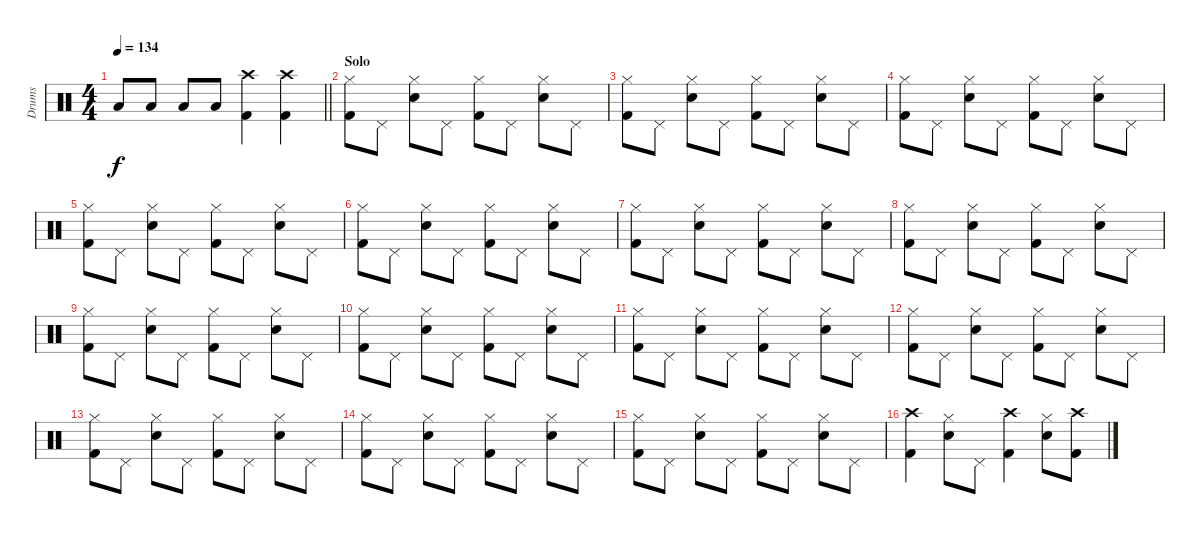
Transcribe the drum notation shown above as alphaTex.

\track ("Drums" "Drums") {instrument percussion}
\staff {score}
\articulation defaults
\ts (4 4)
\tempo 134
\clef neutral
\barLineRight lightlight
\ks c "Low Tom (hit)".8{dy f} "Low Tom (hit)".8 "Low Tom (hit)".8 "Low Tom (hit)".8
("Crash high (hit)" "Kick (hit) 2").4 ("Crash high (hit)" "Kick (hit) 2").4 |
\section ("" "Solo")
("Hi-Hat (closed)" "Kick (hit) 2").8 "Pedal Hi-Hat (hit)".8 ("Hi-Hat (closed)" "Snare (hit) 2").8 "Pedal Hi-Hat (hit)".8 ("Hi-Hat (closed)" "Kick (hit) 2").8 "Pedal Hi-Hat (hit)".8 ("Hi-Hat (closed)" "Snare (hit) 2").8 "Pedal Hi-Hat (hit)".8 |
("Hi-Hat (closed)" "Kick (hit) 2").8 "Pedal Hi-Hat (hit)".8 ("Hi-Hat (closed)" "Snare (hit) 2").8 "Pedal Hi-Hat (hit)".8 ("Hi-Hat (closed)" "Kick (hit) 2").8 "Pedal Hi-Hat (hit)".8 ("Hi-Hat (closed)" "Snare (hit) 2").8 "Pedal Hi-Hat (hit)".8 |
("Hi-Hat (closed)" "Kick (hit) 2").8 "Pedal Hi-Hat (hit)".8 ("Hi-Hat (closed)" "Snare (hit) 2").8 "Pedal Hi-Hat (hit)".8 ("Hi-Hat (closed)" "Kick (hit) 2").8 "Pedal Hi-Hat (hit)".8 ("Hi-Hat (closed)" "Snare (hit) 2").8 "Pedal Hi-Hat (hit)".8 |
("Hi-Hat (closed)" "Kick (hit) 2").8 "Pedal Hi-Hat (hit)".8 ("Hi-Hat (closed)" "Snare (hit) 2").8 "Pedal Hi-Hat (hit)".8 ("Hi-Hat (closed)" "Kick (hit) 2").8 "Pedal Hi-Hat (hit)".8 ("Hi-Hat (closed)" "Snare (hit) 2").8 "Pedal Hi-Hat (hit)".8 |
("Hi-Hat (closed)" "Kick (hit) 2").8 "Pedal Hi-Hat (hit)".8 ("Hi-Hat (closed)" "Snare (hit) 2").8 "Pedal Hi-Hat (hit)".8 ("Hi-Hat (closed)" "Kick (hit) 2").8 "Pedal Hi-Hat (hit)".8 ("Hi-Hat (closed)" "Snare (hit) 2").8 "Pedal Hi-Hat (hit)".8 |
("Hi-Hat (closed)" "Kick (hit) 2").8 "Pedal Hi-Hat (hit)".8 ("Hi-Hat (closed)" "Snare (hit) 2").8 "Pedal Hi-Hat (hit)".8 ("Hi-Hat (closed)" "Kick (hit) 2").8 "Pedal Hi-Hat (hit)".8 ("Hi-Hat (closed)" "Snare (hit) 2").8 "Pedal Hi-Hat (hit)".8 |
("Hi-Hat (closed)" "Kick (hit) 2").8 "Pedal Hi-Hat (hit)".8 ("Hi-Hat (closed)" "Snare (hit) 2").8 "Pedal Hi-Hat (hit)".8 ("Hi-Hat (closed)" "Kick (hit) 2").8 "Pedal Hi-Hat (hit)".8 ("Hi-Hat (closed)" "Snare (hit) 2").8 "Pedal Hi-Hat (hit)".8 |
("Hi-Hat (closed)" "Kick (hit) 2").8 "Pedal Hi-Hat (hit)".8 ("Hi-Hat (closed)" "Snare (hit) 2").8 "Pedal Hi-Hat (hit)".8 ("Hi-Hat (closed)" "Kick (hit) 2").8 "Pedal Hi-Hat (hit)".8 ("Hi-Hat (closed)" "Snare (hit) 2").8 "Pedal Hi-Hat (hit)".8 |
("Hi-Hat (closed)" "Kick (hit) 2").8 "Pedal Hi-Hat (hit)".8 ("Hi-Hat (closed)" "Snare (hit) 2").8 "Pedal Hi-Hat (hit)".8 ("Hi-Hat (closed)" "Kick (hit) 2").8 "Pedal Hi-Hat (hit)".8 ("Hi-Hat (closed)" "Snare (hit) 2").8 "Pedal Hi-Hat (hit)".8 |
("Hi-Hat (closed)" "Kick (hit) 2").8 "Pedal Hi-Hat (hit)".8 ("Hi-Hat (closed)" "Snare (hit) 2").8 "Pedal Hi-Hat (hit)".8 ("Hi-Hat (closed)" "Kick (hit) 2").8 "Pedal Hi-Hat (hit)".8 ("Hi-Hat (closed)" "Snare (hit) 2").8 "Pedal Hi-Hat (hit)".8 |
("Hi-Hat (closed)" "Kick (hit) 2").8 "Pedal Hi-Hat (hit)".8 ("Hi-Hat (closed)" "Snare (hit) 2").8 "Pedal Hi-Hat (hit)".8 ("Hi-Hat (closed)" "Kick (hit) 2").8 "Pedal Hi-Hat (hit)".8 ("Hi-Hat (closed)" "Snare (hit) 2").8 "Pedal Hi-Hat (hit)".8 |
("Hi-Hat (closed)" "Kick (hit) 2").8 "Pedal Hi-Hat (hit)".8 ("Hi-Hat (closed)" "Snare (hit) 2").8 "Pedal Hi-Hat (hit)".8 ("Hi-Hat (closed)" "Kick (hit) 2").8 "Pedal Hi-Hat (hit)".8 ("Hi-Hat (closed)" "Snare (hit) 2").8 "Pedal Hi-Hat (hit)".8 |
("Hi-Hat (closed)" "Kick (hit) 2").8 "Pedal Hi-Hat (hit)".8 ("Hi-Hat (closed)" "Snare (hit) 2").8 "Pedal Hi-Hat (hit)".8 ("Hi-Hat (closed)" "Kick (hit) 2").8 "Pedal Hi-Hat (hit)".8 ("Hi-Hat (closed)" "Snare (hit) 2").8 "Pedal Hi-Hat (hit)".8 |
("Hi-Hat (closed)" "Kick (hit) 2").8 "Pedal Hi-Hat (hit)".8 ("Hi-Hat (closed)" "Snare (hit) 2").8 "Pedal Hi-Hat (hit)".8 ("Hi-Hat (closed)" "Kick (hit) 2").8 "Pedal Hi-Hat (hit)".8 ("Hi-Hat (closed)" "Snare (hit) 2").8 "Pedal Hi-Hat (hit)".8 |
("Crash high (hit)" "Kick (hit) 2").4 ("Hi-Hat (closed)" "Snare (hit) 2").8 "Pedal Hi-Hat (hit)".8 ("Crash high (hit)" "Kick (hit) 2").4 ("Hi-Hat (closed)" "Snare (hit) 2").8 ("Crash high (hit)" "Kick (hit) 2").8
